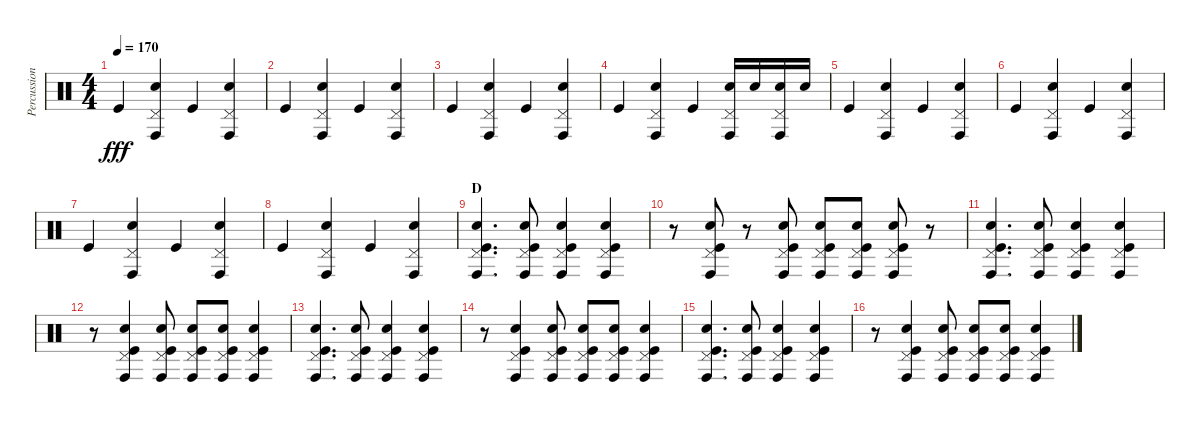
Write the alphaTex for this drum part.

\track ("Percussion" "Percussion") {instrument percussion}
\staff {score}
\articulation defaults
\ts (4 4)
\tempo 170
\clef neutral
\ks c "Kick (hit)".4{dy fff}
("Pedal Hi-Hat (hit)" "Conga high (hit)" "Electric Snare (hit)").4 "Kick (hit)".4 ("Pedal Hi-Hat (hit)" "Conga high (hit)" "Electric Snare (hit)").4 |
"Kick (hit)".4 ("Pedal Hi-Hat (hit)" "Conga high (hit)" "Electric Snare (hit)").4 "Kick (hit)".4 ("Pedal Hi-Hat (hit)" "Conga high (hit)" "Electric Snare (hit)").4 |
"Kick (hit)".4 ("Pedal Hi-Hat (hit)" "Conga high (hit)" "Electric Snare (hit)").4 "Kick (hit)".4 ("Pedal Hi-Hat (hit)" "Conga high (hit)" "Electric Snare (hit)").4 |
"Kick (hit)".4 ("Pedal Hi-Hat (hit)" "Conga high (hit)" "Electric Snare (hit)").4 "Kick (hit)".4 ("Pedal Hi-Hat (hit)" "Conga high (hit)" "Electric Snare (hit)").16 "Electric Snare (hit)".16 ("Pedal Hi-Hat (hit)" "Conga high (hit)" "Electric Snare (hit)").16 "Electric Snare (hit)".16 |
"Kick (hit)".4 ("Pedal Hi-Hat (hit)" "Conga high (hit)" "Electric Snare (hit)").4 "Kick (hit)".4 ("Pedal Hi-Hat (hit)" "Conga high (hit)" "Electric Snare (hit)").4 |
"Kick (hit)".4 ("Pedal Hi-Hat (hit)" "Conga high (hit)" "Electric Snare (hit)").4 "Kick (hit)".4 ("Pedal Hi-Hat (hit)" "Conga high (hit)" "Electric Snare (hit)").4 |
"Kick (hit)".4 ("Pedal Hi-Hat (hit)" "Conga high (hit)" "Electric Snare (hit)").4 "Kick (hit)".4 ("Pedal Hi-Hat (hit)" "Conga high (hit)" "Electric Snare (hit)").4 |
"Kick (hit)".4 ("Pedal Hi-Hat (hit)" "Conga high (hit)" "Electric Snare (hit)").4 "Kick (hit)".4 ("Pedal Hi-Hat (hit)" "Conga high (hit)" "Electric Snare (hit)").4 |
\section ("" "D")
("Pedal Hi-Hat (hit)" "Conga high (hit)" "Electric Snare (hit)" "Kick (hit)").4{d} ("Pedal Hi-Hat (hit)" "Conga high (hit)" "Electric Snare (hit)" "Kick (hit)").8 ("Pedal Hi-Hat (hit)" "Conga high (hit)" "Electric Snare (hit)" "Kick (hit)").4 ("Pedal Hi-Hat (hit)" "Conga high (hit)" "Electric Snare (hit)" "Kick (hit)").4 |
r.8 ("Pedal Hi-Hat (hit)" "Conga high (hit)" "Electric Snare (hit)" "Kick (hit)").8 r.8 ("Pedal Hi-Hat (hit)" "Conga high (hit)" "Electric Snare (hit)" "Kick (hit)").8 ("Pedal Hi-Hat (hit)" "Conga high (hit)" "Electric Snare (hit)" "Kick (hit)").8 ("Pedal Hi-Hat (hit)" "Conga high (hit)" "Electric Snare (hit)" "Kick (hit)").8 ("Pedal Hi-Hat (hit)" "Conga high (hit)" "Electric Snare (hit)" "Kick (hit)").8 r.8 |
("Pedal Hi-Hat (hit)" "Conga high (hit)" "Electric Snare (hit)" "Kick (hit)").4{d} ("Pedal Hi-Hat (hit)" "Conga high (hit)" "Electric Snare (hit)" "Kick (hit)").8 ("Pedal Hi-Hat (hit)" "Conga high (hit)" "Electric Snare (hit)" "Kick (hit)").4 ("Pedal Hi-Hat (hit)" "Conga high (hit)" "Electric Snare (hit)" "Kick (hit)").4 |
r.8 ("Pedal Hi-Hat (hit)" "Conga high (hit)" "Electric Snare (hit)" "Kick (hit)").4 ("Pedal Hi-Hat (hit)" "Conga high (hit)" "Electric Snare (hit)" "Kick (hit)").8 ("Pedal Hi-Hat (hit)" "Conga high (hit)" "Electric Snare (hit)" "Kick (hit)").8 ("Pedal Hi-Hat (hit)" "Conga high (hit)" "Electric Snare (hit)" "Kick (hit)").8 ("Pedal Hi-Hat (hit)" "Conga high (hit)" "Electric Snare (hit)" "Kick (hit)").4 |
("Pedal Hi-Hat (hit)" "Conga high (hit)" "Electric Snare (hit)" "Kick (hit)").4{d} ("Pedal Hi-Hat (hit)" "Conga high (hit)" "Electric Snare (hit)" "Kick (hit)").8 ("Pedal Hi-Hat (hit)" "Conga high (hit)" "Electric Snare (hit)" "Kick (hit)").4 ("Pedal Hi-Hat (hit)" "Conga high (hit)" "Electric Snare (hit)" "Kick (hit)").4 |
r.8 ("Pedal Hi-Hat (hit)" "Conga high (hit)" "Electric Snare (hit)" "Kick (hit)").4 ("Pedal Hi-Hat (hit)" "Conga high (hit)" "Electric Snare (hit)" "Kick (hit)").8 ("Pedal Hi-Hat (hit)" "Conga high (hit)" "Electric Snare (hit)" "Kick (hit)").8 ("Pedal Hi-Hat (hit)" "Conga high (hit)" "Electric Snare (hit)" "Kick (hit)").8 ("Pedal Hi-Hat (hit)" "Conga high (hit)" "Electric Snare (hit)" "Kick (hit)").4 |
("Pedal Hi-Hat (hit)" "Conga high (hit)" "Electric Snare (hit)" "Kick (hit)").4{d} ("Pedal Hi-Hat (hit)" "Conga high (hit)" "Electric Snare (hit)" "Kick (hit)").8 ("Pedal Hi-Hat (hit)" "Conga high (hit)" "Electric Snare (hit)" "Kick (hit)").4 ("Pedal Hi-Hat (hit)" "Conga high (hit)" "Electric Snare (hit)" "Kick (hit)").4 |
r.8 ("Pedal Hi-Hat (hit)" "Conga high (hit)" "Electric Snare (hit)" "Kick (hit)").4 ("Pedal Hi-Hat (hit)" "Conga high (hit)" "Electric Snare (hit)" "Kick (hit)").8 ("Pedal Hi-Hat (hit)" "Conga high (hit)" "Electric Snare (hit)" "Kick (hit)").8 ("Pedal Hi-Hat (hit)" "Conga high (hit)" "Electric Snare (hit)" "Kick (hit)").8 ("Pedal Hi-Hat (hit)" "Conga high (hit)" "Electric Snare (hit)" "Kick (hit)").4
